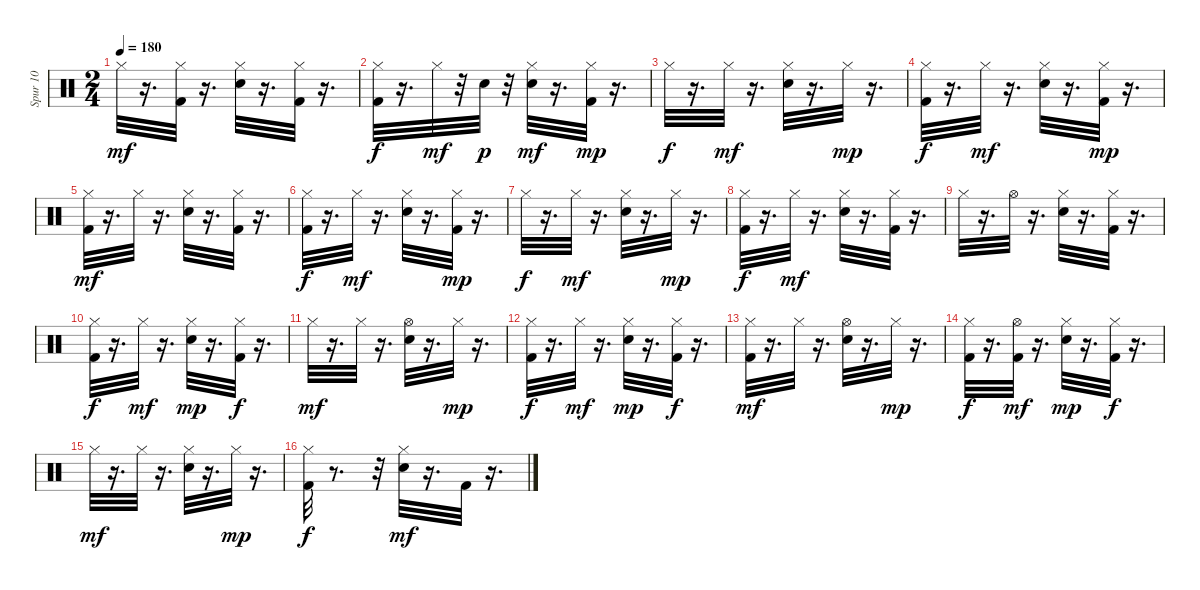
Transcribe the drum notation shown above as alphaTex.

\track ("Spur 10" "Spur 10") {instrument percussion}
\staff {score}
\articulation defaults
\ts (2 4)
\tempo 180
\clef neutral
\ks c "Hi-Hat (closed)".32{dy mf}
r.16{d} ("Hi-Hat (closed)" "Kick (hit) 2").32 r.16{d} ("Electric Snare (hit)" "Hi-Hat (closed)").32 r.16{d} ("Hi-Hat (closed)" "Kick (hit) 2").32 r.16{d} |
("Hi-Hat (closed)" "Kick (hit) 2").32{dy f} r.16{d} "Hi-Hat (closed)".32{dy mf} r.32 "Electric Snare (hit)".32{dy p} r.32 ("Electric Snare (hit)" "Hi-Hat (closed)").32{dy mf} r.16{d} ("Hi-Hat (closed)" "Kick (hit) 2").32{dy mp} r.16{d} |
"Hi-Hat (closed)".32{dy f} r.16{d} "Hi-Hat (closed)".32{dy mf} r.16{d} ("Electric Snare (hit)" "Hi-Hat (closed)").32 r.16{d} "Hi-Hat (closed)".32{dy mp} r.16{d} |
("Hi-Hat (closed)" "Kick (hit) 2").32{dy f} r.16{d} "Hi-Hat (closed)".32{dy mf} r.16{d} ("Electric Snare (hit)" "Hi-Hat (closed)").32 r.16{d} ("Hi-Hat (closed)" "Kick (hit) 2").32{dy mp} r.16{d} |
("Hi-Hat (closed)" "Kick (hit) 2").32{dy mf} r.16{d} "Hi-Hat (closed)".32 r.16{d} ("Electric Snare (hit)" "Hi-Hat (closed)").32 r.16{d} ("Hi-Hat (closed)" "Kick (hit) 2").32 r.16{d} |
("Hi-Hat (closed)" "Kick (hit) 2").32{dy f} r.16{d} "Hi-Hat (closed)".32{dy mf} r.16{d} ("Electric Snare (hit)" "Hi-Hat (closed)").32 r.16{d} ("Hi-Hat (closed)" "Kick (hit) 2").32{dy mp} r.16{d} |
"Hi-Hat (closed)".32{dy f} r.16{d} "Hi-Hat (closed)".32{dy mf} r.16{d} ("Electric Snare (hit)" "Hi-Hat (closed)").32 r.16{d} "Hi-Hat (closed)".32{dy mp} r.16{d} |
("Hi-Hat (closed)" "Kick (hit) 2").32{dy f} r.16{d} "Hi-Hat (closed)".32{dy mf} r.16{d} ("Electric Snare (hit)" "Hi-Hat (closed)").32 r.16{d} ("Hi-Hat (closed)" "Kick (hit) 2").32 r.16{d} |
"Hi-Hat (closed)".32 r.16{d} "Hi-Hat (open)".32 r.16{d} ("Electric Snare (hit)" "Hi-Hat (closed)").32 r.16{d} ("Hi-Hat (closed)" "Kick (hit) 2").32 r.16{d} |
("Hi-Hat (closed)" "Kick (hit) 2").32{dy f} r.16{d} "Hi-Hat (closed)".32{dy mf} r.16{d} ("Electric Snare (hit)" "Hi-Hat (closed)").32{dy mp} r.16{d} ("Hi-Hat (closed)" "Kick (hit) 2").32{dy f} r.16{d} |
"Hi-Hat (closed)".32{dy mf} r.16{d} "Hi-Hat (closed)".32 r.16{d} ("Electric Snare (hit)" "Hi-Hat (open)").32 r.16{d} "Hi-Hat (closed)".32{dy mp} r.16{d} |
("Hi-Hat (closed)" "Kick (hit) 2").32{dy f} r.16{d} "Hi-Hat (closed)".32{dy mf} r.16{d} ("Electric Snare (hit)" "Hi-Hat (closed)").32{dy mp} r.16{d} ("Hi-Hat (closed)" "Kick (hit) 2").32{dy f} r.16{d} |
("Hi-Hat (closed)" "Kick (hit) 2").32{dy mf} r.16{d} "Hi-Hat (closed)".32 r.16{d} ("Electric Snare (hit)" "Hi-Hat (open)").32 r.16{d} "Hi-Hat (closed)".32{dy mp} r.16{d} |
("Hi-Hat (closed)" "Kick (hit) 2").32{dy f} r.16{d} ("Hi-Hat (open)" "Kick (hit) 2").32{dy mf} r.16{d} ("Electric Snare (hit)" "Hi-Hat (closed)").32{dy mp} r.16{d} ("Hi-Hat (closed)" "Kick (hit) 2").32{dy f} r.16{d} |
"Hi-Hat (closed)".32{dy mf} r.16{d} "Hi-Hat (closed)".32 r.16{d} ("Electric Snare (hit)" "Hi-Hat (closed)").32 r.16{d} "Hi-Hat (closed)".32{dy mp} r.16{d} |
("Hi-Hat (closed)" "Kick (hit) 2").32{dy f} r.8{d} r.32 ("Electric Snare (hit)" "Hi-Hat (closed)").32{dy mf} r.16{d} "Kick (hit) 2".32 r.16{d}
